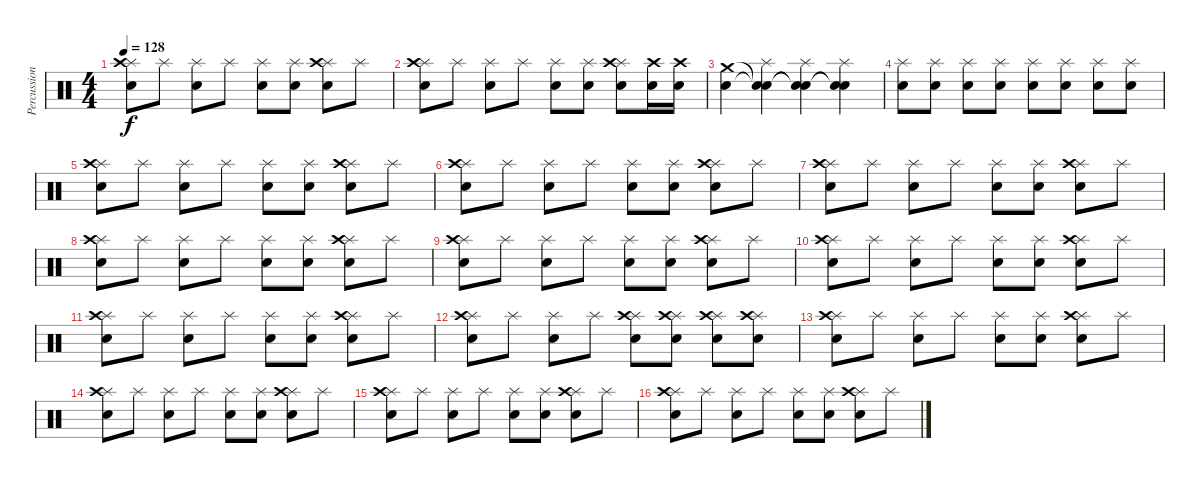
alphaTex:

\track ("Percussions" "Percussion") {instrument percussion}
\staff {score}
\articulation defaults
\ts (4 4)
\tempo 128
\clef neutral
\ks c
("Splash (hit)" "Snare (hit) 2" "Crash high (hit)").8{dy f} "Splash (hit)".8 ("Splash (hit)" "Electric Snare (hit)").8 "Splash (hit)".8 ("Splash (hit)" "Snare (hit) 2").8 ("Splash (hit)" "Snare (hit) 2").8 ("Splash (hit)" "Electric Snare (hit)" "Crash high (hit)").8 "Splash (hit)".8 |
("Splash (hit)" "Snare (hit) 2" "Crash high (hit)").8 "Splash (hit)".8 ("Splash (hit)" "Electric Snare (hit)").8 "Splash (hit)".8 ("Splash (hit)" "Snare (hit) 2").8 ("Splash (hit)" "Snare (hit) 2").8 ("Splash (hit)" "Electric Snare (hit)" "Crash high (hit)").8 ("Electric Snare (hit)" "Crash high (hit)").16 ("Electric Snare (hit)" "Crash high (hit)").16 |
("Crash medium (hit)" "Electric Snare (hit)").4 ("Snare (hit)"{t} "Snare (hit)"{t} "Splash (hit)").4 ("Snare (hit)"{t} "Snare (hit)"{t} "Splash (hit)").4 ("Snare (hit)"{t} "Snare (hit)"{t} "Splash (hit)").4 |
("Splash (hit)" "Electric Snare (hit)").8 ("Splash (hit)" "Snare (hit) 2").8 ("Splash (hit)" "Snare (hit) 2").8 ("Splash (hit)" "Snare (hit) 2").8 ("Splash (hit)" "Snare (hit) 2").8 ("Splash (hit)" "Snare (hit) 2").8 ("Splash (hit)" "Snare (hit) 2").8 ("Splash (hit)" "Snare (hit) 2").8 |
("Splash (hit)" "Snare (hit) 2" "Crash high (hit)").8 "Splash (hit)".8 ("Splash (hit)" "Electric Snare (hit)").8 "Splash (hit)".8 ("Splash (hit)" "Snare (hit) 2").8 ("Splash (hit)" "Snare (hit) 2").8 ("Splash (hit)" "Electric Snare (hit)" "Crash high (hit)").8 "Splash (hit)".8 |
("Splash (hit)" "Snare (hit) 2" "Crash high (hit)").8 "Splash (hit)".8 ("Splash (hit)" "Electric Snare (hit)").8 "Splash (hit)".8 ("Splash (hit)" "Snare (hit) 2").8 ("Splash (hit)" "Snare (hit) 2").8 ("Splash (hit)" "Electric Snare (hit)" "Crash high (hit)").8 "Splash (hit)".8 |
("Splash (hit)" "Snare (hit) 2" "Crash high (hit)").8 "Splash (hit)".8 ("Splash (hit)" "Electric Snare (hit)").8 "Splash (hit)".8 ("Splash (hit)" "Snare (hit) 2").8 ("Splash (hit)" "Snare (hit) 2").8 ("Splash (hit)" "Electric Snare (hit)" "Crash high (hit)").8 "Splash (hit)".8 |
("Splash (hit)" "Snare (hit) 2" "Crash high (hit)").8 "Splash (hit)".8 ("Splash (hit)" "Electric Snare (hit)").8 "Splash (hit)".8 ("Splash (hit)" "Snare (hit) 2").8 ("Splash (hit)" "Snare (hit) 2").8 ("Splash (hit)" "Electric Snare (hit)" "Crash high (hit)").8 "Splash (hit)".8 |
("Splash (hit)" "Snare (hit) 2" "Crash high (hit)").8 "Splash (hit)".8 ("Splash (hit)" "Electric Snare (hit)").8 "Splash (hit)".8 ("Splash (hit)" "Snare (hit) 2").8 ("Splash (hit)" "Snare (hit) 2").8 ("Splash (hit)" "Electric Snare (hit)" "Crash high (hit)").8 "Splash (hit)".8 |
("Splash (hit)" "Snare (hit) 2" "Crash high (hit)").8 "Splash (hit)".8 ("Splash (hit)" "Electric Snare (hit)").8 "Splash (hit)".8 ("Splash (hit)" "Snare (hit) 2").8 ("Splash (hit)" "Snare (hit) 2").8 ("Splash (hit)" "Electric Snare (hit)" "Crash high (hit)").8 "Splash (hit)".8 |
("Splash (hit)" "Snare (hit) 2" "Crash high (hit)").8 "Splash (hit)".8 ("Splash (hit)" "Electric Snare (hit)").8 "Splash (hit)".8 ("Splash (hit)" "Snare (hit) 2").8 ("Splash (hit)" "Snare (hit) 2").8 ("Splash (hit)" "Electric Snare (hit)" "Crash high (hit)").8 "Splash (hit)".8 |
("Splash (hit)" "Snare (hit) 2" "Crash high (hit)").8 "Splash (hit)".8 ("Splash (hit)" "Electric Snare (hit)").8 "Splash (hit)".8 ("Splash (hit)" "Snare (hit) 2" "Crash high (hit)").8 ("Splash (hit)" "Snare (hit) 2" "Crash high (hit)").8 ("Splash (hit)" "Snare (hit) 2" "Crash high (hit)").8 ("Splash (hit)" "Crash high (hit)" "Electric Snare (hit)").8 |
("Splash (hit)" "Snare (hit) 2" "Crash high (hit)").8 "Splash (hit)".8 ("Splash (hit)" "Electric Snare (hit)").8 "Splash (hit)".8 ("Splash (hit)" "Snare (hit) 2").8 ("Splash (hit)" "Snare (hit) 2").8 ("Splash (hit)" "Electric Snare (hit)" "Crash high (hit)").8 "Splash (hit)".8 |
("Splash (hit)" "Snare (hit) 2" "Crash high (hit)").8 "Splash (hit)".8 ("Splash (hit)" "Electric Snare (hit)").8 "Splash (hit)".8 ("Splash (hit)" "Snare (hit) 2").8 ("Splash (hit)" "Snare (hit) 2").8 ("Splash (hit)" "Electric Snare (hit)" "Crash high (hit)").8 "Splash (hit)".8 |
("Splash (hit)" "Snare (hit) 2" "Crash high (hit)").8 "Splash (hit)".8 ("Splash (hit)" "Electric Snare (hit)").8 "Splash (hit)".8 ("Splash (hit)" "Snare (hit) 2").8 ("Splash (hit)" "Snare (hit) 2").8 ("Splash (hit)" "Electric Snare (hit)" "Crash high (hit)").8 "Splash (hit)".8 |
("Splash (hit)" "Snare (hit) 2" "Crash high (hit)").8 "Splash (hit)".8 ("Splash (hit)" "Electric Snare (hit)").8 "Splash (hit)".8 ("Splash (hit)" "Snare (hit) 2").8 ("Splash (hit)" "Snare (hit) 2").8 ("Splash (hit)" "Electric Snare (hit)" "Crash high (hit)").8 "Splash (hit)".8
